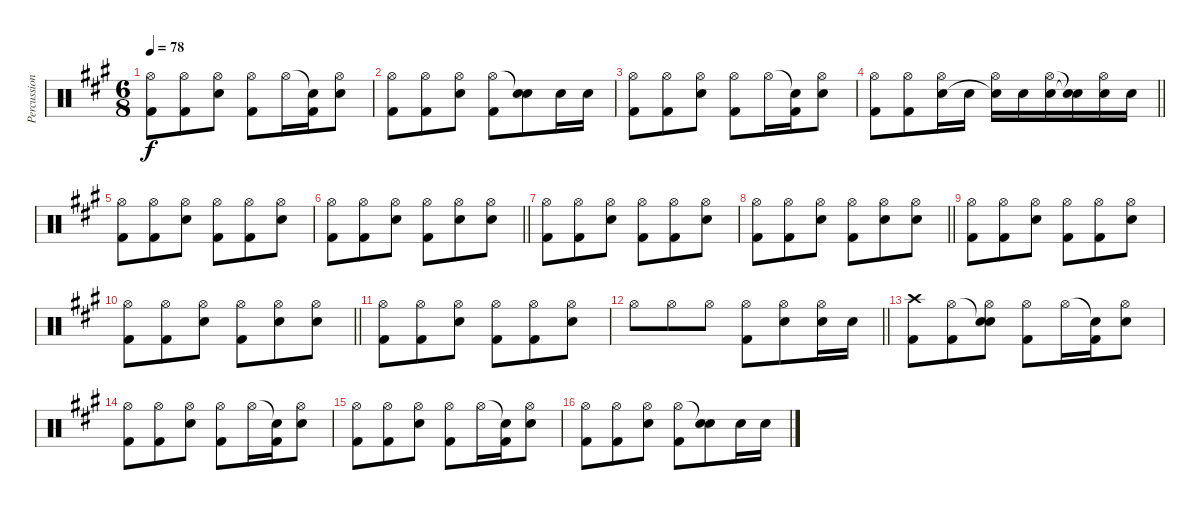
\track ("Percussions" "Percussion") {instrument percussion}
\staff {score}
\articulation defaults
\ts (6 8)
\tempo 78
\clef neutral
\ks a
("Hi-Hat (open)" "Kick (hit) 2").8{dy f} ("Hi-Hat (open)" "Kick (hit) 2").8 ("Hi-Hat (open)" "Snare (hit) 2").8 ("Hi-Hat (open)" "Kick (hit) 2").8 "Hi-Hat (open)".16 ("Snare (hit)"{t} "Kick (hit) 2").16 ("Hi-Hat (open)" "Snare (hit) 2").8 |
("Hi-Hat (open)" "Kick (hit) 2").8 ("Hi-Hat (open)" "Kick (hit) 2").8 ("Hi-Hat (open)" "Snare (hit) 2").8 ("Hi-Hat (open)" "Kick (hit) 2").8 ("Snare (hit)"{t} "Snare (hit) 2").8 "Snare (hit) 2".16 "Snare (hit) 2".16 |
("Hi-Hat (open)" "Kick (hit) 2").8 ("Hi-Hat (open)" "Kick (hit) 2").8 ("Hi-Hat (open)" "Snare (hit) 2").8 ("Hi-Hat (open)" "Kick (hit) 2").8 "Hi-Hat (open)".16 ("Snare (hit)"{t} "Kick (hit) 2").16 ("Hi-Hat (open)" "Snare (hit) 2").8 |
\barLineRight lightlight
("Hi-Hat (open)" "Kick (hit) 2").8 ("Hi-Hat (open)" "Kick (hit) 2").8 ("Hi-Hat (open)" "Snare (hit) 2").16 "Snare (hit) 2".16 ("Hi-Hat (open)" "Snare (hit)"{t}).16 "Snare (hit) 2".16 ("Hi-Hat (open)" "Snare (hit) 2").16 ("Snare (hit)"{t} "Snare (hit) 2"{t}).16 ("Hi-Hat (open)" "Snare (hit) 2").16 "Snare (hit) 2".16 |
("Hi-Hat (open)" "Kick (hit) 2").8 ("Hi-Hat (open)" "Kick (hit) 2").8 ("Hi-Hat (open)" "Snare (hit) 2").8 ("Hi-Hat (open)" "Kick (hit) 2").8 ("Hi-Hat (open)" "Kick (hit) 2").8 ("Hi-Hat (open)" "Snare (hit) 2").8 |
\barLineRight lightlight
("Hi-Hat (open)" "Kick (hit) 2").8 ("Hi-Hat (open)" "Kick (hit) 2").8 ("Hi-Hat (open)" "Snare (hit) 2").8 ("Hi-Hat (open)" "Kick (hit) 2").8 ("Hi-Hat (open)" "Snare (hit) 2").8 ("Hi-Hat (open)" "Snare (hit) 2").8 |
("Hi-Hat (open)" "Kick (hit) 2").8 ("Hi-Hat (open)" "Kick (hit) 2").8 ("Hi-Hat (open)" "Snare (hit) 2").8 ("Hi-Hat (open)" "Kick (hit) 2").8 ("Hi-Hat (open)" "Kick (hit) 2").8 ("Hi-Hat (open)" "Snare (hit) 2").8 |
\barLineRight lightlight
("Hi-Hat (open)" "Kick (hit) 2").8 ("Hi-Hat (open)" "Kick (hit) 2").8 ("Hi-Hat (open)" "Snare (hit) 2").8 ("Hi-Hat (open)" "Kick (hit) 2").8 ("Hi-Hat (open)" "Snare (hit) 2").8 ("Hi-Hat (open)" "Snare (hit) 2").8 |
("Hi-Hat (open)" "Kick (hit) 2").8 ("Hi-Hat (open)" "Kick (hit) 2").8 ("Hi-Hat (open)" "Snare (hit) 2").8 ("Hi-Hat (open)" "Kick (hit) 2").8 ("Hi-Hat (open)" "Kick (hit) 2").8 ("Hi-Hat (open)" "Snare (hit) 2").8 |
\barLineRight lightlight
("Hi-Hat (open)" "Kick (hit) 2").8 ("Hi-Hat (open)" "Kick (hit) 2").8 ("Hi-Hat (open)" "Snare (hit) 2").8 ("Hi-Hat (open)" "Kick (hit) 2").8 ("Hi-Hat (open)" "Snare (hit) 2").8 ("Hi-Hat (open)" "Snare (hit) 2").8 |
("Hi-Hat (open)" "Kick (hit) 2").8 ("Hi-Hat (open)" "Kick (hit) 2").8 ("Hi-Hat (open)" "Snare (hit) 2").8 ("Hi-Hat (open)" "Kick (hit) 2").8 ("Hi-Hat (open)" "Kick (hit) 2").8 ("Hi-Hat (open)" "Snare (hit) 2").8 |
\barLineRight lightlight "Hi-Hat (open)".8 "Hi-Hat (open)".8 "Hi-Hat (open)".8
("Hi-Hat (open)" "Kick (hit) 2").8 ("Hi-Hat (open)" "Snare (hit) 2").8 ("Hi-Hat (open)" "Snare (hit) 2").16 "Snare (hit) 2".16 |
("Crash high (hit)" "Kick (hit) 2").8 ("Hi-Hat (open)" "Kick (hit) 2").8 ("Snare (hit)"{t} "Hi-Hat (open)" "Snare (hit) 2").8 ("Hi-Hat (open)" "Kick (hit) 2").8 "Hi-Hat (open)".16 ("Snare (hit)"{t} "Kick (hit) 2").16 ("Hi-Hat (open)" "Snare (hit) 2").8 |
("Hi-Hat (open)" "Kick (hit) 2").8 ("Hi-Hat (open)" "Kick (hit) 2").8 ("Hi-Hat (open)" "Snare (hit) 2").8 ("Hi-Hat (open)" "Kick (hit) 2").8 "Hi-Hat (open)".16 ("Snare (hit)"{t} "Kick (hit) 2").16 ("Hi-Hat (open)" "Snare (hit) 2").8 |
("Hi-Hat (open)" "Kick (hit) 2").8 ("Hi-Hat (open)" "Kick (hit) 2").8 ("Hi-Hat (open)" "Snare (hit) 2").8 ("Hi-Hat (open)" "Kick (hit) 2").8 "Hi-Hat (open)".16 ("Snare (hit)"{t} "Kick (hit) 2").16 ("Hi-Hat (open)" "Snare (hit) 2").8 |
("Hi-Hat (open)" "Kick (hit) 2").8 ("Hi-Hat (open)" "Kick (hit) 2").8 ("Hi-Hat (open)" "Snare (hit) 2").8 ("Hi-Hat (open)" "Kick (hit) 2").8 ("Snare (hit)"{t} "Snare (hit) 2").8 "Snare (hit) 2".16 "Snare (hit) 2".16
